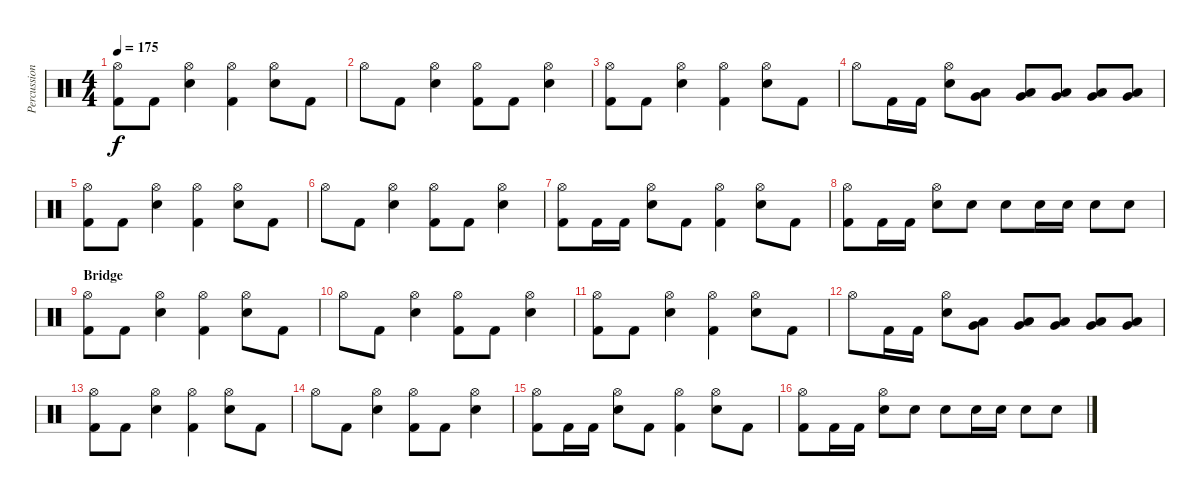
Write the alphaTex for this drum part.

\track ("Percussion" "Percussion") {instrument percussion}
\staff {score}
\articulation defaults
\ts (4 4)
\tempo 175
\clef neutral
\ks c
("Hi-Hat (open)" "Kick (hit) 2").8{dy f} "Kick (hit) 2".8 ("Hi-Hat (open)" "Electric Snare (hit)").4 ("Hi-Hat (open)" "Kick (hit) 2").4 ("Hi-Hat (open)" "Electric Snare (hit)").8 "Kick (hit) 2".8 |
"Hi-Hat (open)".8 "Kick (hit) 2".8 ("Hi-Hat (open)" "Electric Snare (hit)").4 ("Hi-Hat (open)" "Kick (hit) 2").8 "Kick (hit) 2".8 ("Hi-Hat (open)" "Electric Snare (hit)").4 |
("Hi-Hat (open)" "Kick (hit) 2").8 "Kick (hit) 2".8 ("Hi-Hat (open)" "Electric Snare (hit)").4 ("Hi-Hat (open)" "Kick (hit) 2").4 ("Hi-Hat (open)" "Electric Snare (hit)").8 "Kick (hit) 2".8 |
"Hi-Hat (open)".8 "Kick (hit) 2".16 "Kick (hit) 2".16 ("Hi-Hat (open)" "Electric Snare (hit)").8 ("Low Tom (hit)" "Very Low Tom (hit)").8 ("Low Tom (hit)" "Very Low Tom (hit)").8 ("Low Tom (hit)" "Very Low Tom (hit)").8 ("Low Tom (hit)" "Very Low Tom (hit)").8 ("Low Tom (hit)" "Very Low Tom (hit)").8 |
("Hi-Hat (open)" "Kick (hit) 2").8 "Kick (hit) 2".8 ("Hi-Hat (open)" "Electric Snare (hit)").4 ("Hi-Hat (open)" "Kick (hit) 2").4 ("Hi-Hat (open)" "Electric Snare (hit)").8 "Kick (hit) 2".8 |
"Hi-Hat (open)".8 "Kick (hit) 2".8 ("Hi-Hat (open)" "Electric Snare (hit)").4 ("Hi-Hat (open)" "Kick (hit) 2").8 "Kick (hit) 2".8 ("Hi-Hat (open)" "Electric Snare (hit)").4 |
("Hi-Hat (open)" "Kick (hit) 2").8 "Kick (hit) 2".16 "Kick (hit) 2".16 ("Hi-Hat (open)" "Electric Snare (hit)").8 "Kick (hit) 2".8 ("Hi-Hat (open)" "Kick (hit) 2").4 ("Hi-Hat (open)" "Electric Snare (hit)").8 "Kick (hit) 2".8 |
("Hi-Hat (open)" "Kick (hit) 2").8 "Kick (hit) 2".16 "Kick (hit) 2".16 ("Hi-Hat (open)" "Electric Snare (hit)").8 "Electric Snare (hit)".8 "Electric Snare (hit)".8 "Electric Snare (hit)".16 "Electric Snare (hit)".16 "Electric Snare (hit)".8 "Electric Snare (hit)".8 |
\section ("" "Bridge")
("Hi-Hat (open)" "Kick (hit) 2").8 "Kick (hit) 2".8 ("Hi-Hat (open)" "Electric Snare (hit)").4 ("Hi-Hat (open)" "Kick (hit) 2").4 ("Hi-Hat (open)" "Electric Snare (hit)").8 "Kick (hit) 2".8 |
"Hi-Hat (open)".8 "Kick (hit) 2".8 ("Hi-Hat (open)" "Electric Snare (hit)").4 ("Hi-Hat (open)" "Kick (hit) 2").8 "Kick (hit) 2".8 ("Hi-Hat (open)" "Electric Snare (hit)").4 |
("Hi-Hat (open)" "Kick (hit) 2").8 "Kick (hit) 2".8 ("Hi-Hat (open)" "Electric Snare (hit)").4 ("Hi-Hat (open)" "Kick (hit) 2").4 ("Hi-Hat (open)" "Electric Snare (hit)").8 "Kick (hit) 2".8 |
"Hi-Hat (open)".8 "Kick (hit) 2".16 "Kick (hit) 2".16 ("Hi-Hat (open)" "Electric Snare (hit)").8 ("Low Tom (hit)" "Very Low Tom (hit)").8 ("Low Tom (hit)" "Very Low Tom (hit)").8 ("Low Tom (hit)" "Very Low Tom (hit)").8 ("Low Tom (hit)" "Very Low Tom (hit)").8 ("Low Tom (hit)" "Very Low Tom (hit)").8 |
("Hi-Hat (open)" "Kick (hit) 2").8 "Kick (hit) 2".8 ("Hi-Hat (open)" "Electric Snare (hit)").4 ("Hi-Hat (open)" "Kick (hit) 2").4 ("Hi-Hat (open)" "Electric Snare (hit)").8 "Kick (hit) 2".8 |
"Hi-Hat (open)".8 "Kick (hit) 2".8 ("Hi-Hat (open)" "Electric Snare (hit)").4 ("Hi-Hat (open)" "Kick (hit) 2").8 "Kick (hit) 2".8 ("Hi-Hat (open)" "Electric Snare (hit)").4 |
("Hi-Hat (open)" "Kick (hit) 2").8 "Kick (hit) 2".16 "Kick (hit) 2".16 ("Hi-Hat (open)" "Electric Snare (hit)").8 "Kick (hit) 2".8 ("Hi-Hat (open)" "Kick (hit) 2").4 ("Hi-Hat (open)" "Electric Snare (hit)").8 "Kick (hit) 2".8 |
("Hi-Hat (open)" "Kick (hit) 2").8 "Kick (hit) 2".16 "Kick (hit) 2".16 ("Hi-Hat (open)" "Electric Snare (hit)").8 "Electric Snare (hit)".8 "Electric Snare (hit)".8 "Electric Snare (hit)".16 "Electric Snare (hit)".16 "Electric Snare (hit)".8 "Electric Snare (hit)".8
